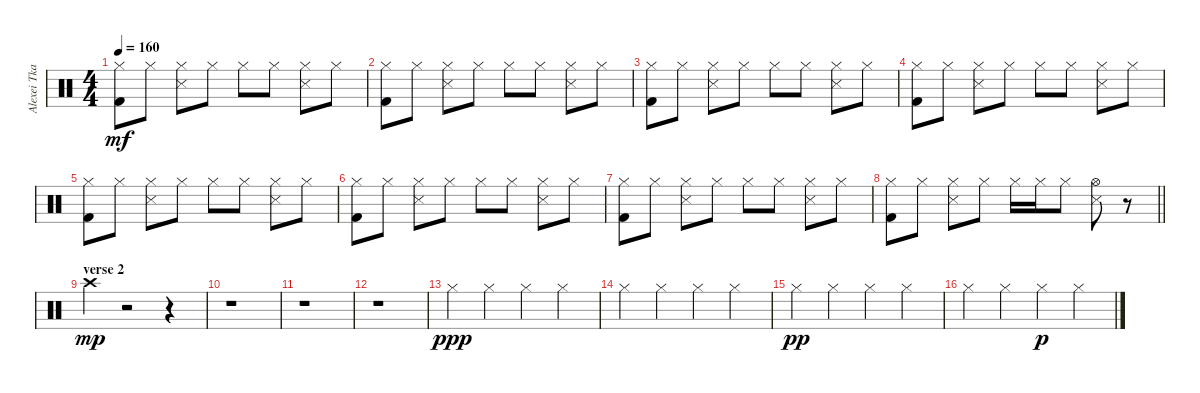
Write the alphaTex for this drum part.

\track ("Alexei Tkachevskiy " "Alexei Tka") {instrument percussion}
\staff {score}
\articulation defaults
\ts (4 4)
\tempo 160
\clef neutral
\ks c
("Hi-Hat (closed)" "Kick (hit) 2").8{dy mf} "Hi-Hat (closed)".8 ("Hi-Hat (closed)" "Snare (side stick) 3").8 "Hi-Hat (closed)".8 "Hi-Hat (closed)".8 "Hi-Hat (closed)".8 ("Hi-Hat (closed)" "Snare (side stick) 3").8 "Hi-Hat (closed)".8 |
("Hi-Hat (closed)" "Kick (hit) 2").8 "Hi-Hat (closed)".8 ("Hi-Hat (closed)" "Snare (side stick) 3").8 "Hi-Hat (closed)".8 "Hi-Hat (closed)".8 "Hi-Hat (closed)".8 ("Hi-Hat (closed)" "Snare (side stick) 3").8 "Hi-Hat (closed)".8 |
("Hi-Hat (closed)" "Kick (hit) 2").8 "Hi-Hat (closed)".8 ("Hi-Hat (closed)" "Snare (side stick) 3").8 "Hi-Hat (closed)".8 "Hi-Hat (closed)".8 "Hi-Hat (closed)".8 ("Hi-Hat (closed)" "Snare (side stick) 3").8 "Hi-Hat (closed)".8 |
("Hi-Hat (closed)" "Kick (hit) 2").8 "Hi-Hat (closed)".8 ("Hi-Hat (closed)" "Snare (side stick) 3").8 "Hi-Hat (closed)".8 "Hi-Hat (closed)".8 "Hi-Hat (closed)".8 ("Hi-Hat (closed)" "Snare (side stick) 3").8 "Hi-Hat (closed)".8 |
("Hi-Hat (closed)" "Kick (hit) 2").8 "Hi-Hat (closed)".8 ("Hi-Hat (closed)" "Snare (side stick) 3").8 "Hi-Hat (closed)".8 "Hi-Hat (closed)".8 "Hi-Hat (closed)".8 ("Hi-Hat (closed)" "Snare (side stick) 3").8 "Hi-Hat (closed)".8 |
("Hi-Hat (closed)" "Kick (hit) 2").8 "Hi-Hat (closed)".8 ("Hi-Hat (closed)" "Snare (side stick) 3").8 "Hi-Hat (closed)".8 "Hi-Hat (closed)".8 "Hi-Hat (closed)".8 ("Hi-Hat (closed)" "Snare (side stick) 3").8 "Hi-Hat (closed)".8 |
("Hi-Hat (closed)" "Kick (hit) 2").8 "Hi-Hat (closed)".8 ("Hi-Hat (closed)" "Snare (side stick) 3").8 "Hi-Hat (closed)".8 "Hi-Hat (closed)".8 "Hi-Hat (closed)".8 ("Hi-Hat (closed)" "Snare (side stick) 3").8 "Hi-Hat (closed)".8 |
\barLineRight lightlight
("Hi-Hat (closed)" "Kick (hit) 2").8 "Hi-Hat (closed)".8 ("Hi-Hat (closed)" "Snare (side stick) 3").8 "Hi-Hat (closed)".8 "Hi-Hat (closed)".16 "Hi-Hat (closed)".16 "Hi-Hat (closed)".8 ("Hi-Hat (open)" "Snare (side stick) 3").8 r.8 |
\section ("" "verse 2")
"Crash high (hit)".4{dy mp} r.2 r.4 |
r.1 |
r.1 |
r.1 |
"Hi-Hat (closed)".4{dy ppp} "Hi-Hat (closed)".4 "Hi-Hat (closed)".4 "Hi-Hat (closed)".4 |
"Hi-Hat (closed)".4 "Hi-Hat (closed)".4 "Hi-Hat (closed)".4 "Hi-Hat (closed)".4 |
"Hi-Hat (closed)".4{dy pp} "Hi-Hat (closed)".4 "Hi-Hat (closed)".4 "Hi-Hat (closed)".4 |
"Hi-Hat (closed)".4 "Hi-Hat (closed)".4 "Hi-Hat (closed)".4{dy p} "Hi-Hat (closed)".4
